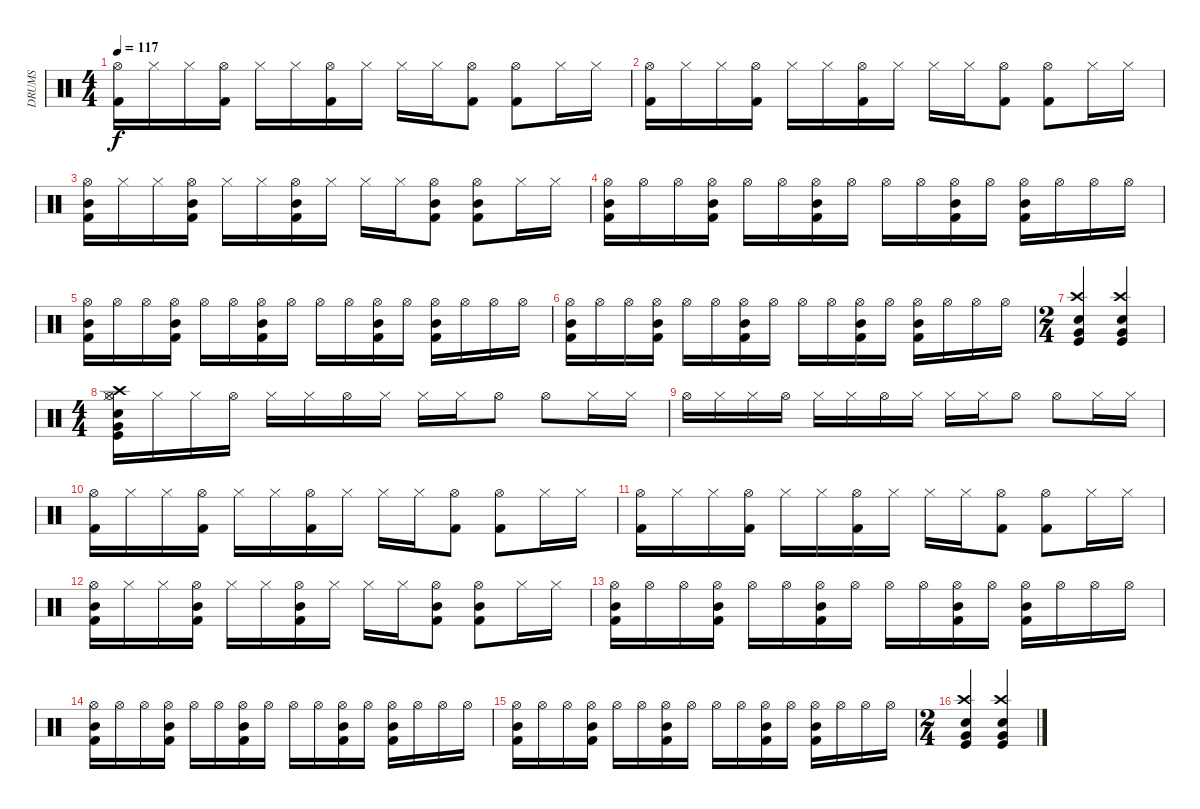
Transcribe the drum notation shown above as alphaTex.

\track ("DRUMS" "DRUMS") {instrument percussion}
\staff {score}
\articulation defaults
\ts (4 4)
\tempo 117
\clef neutral
\ks c
("Kick (hit) 2" "Hi-Hat (open)").16{dy f} "Hi-Hat (closed)".16 "Hi-Hat (closed)".16 ("Kick (hit) 2" "Hi-Hat (open)").16 "Hi-Hat (closed)".16 "Hi-Hat (closed)".16 ("Kick (hit) 2" "Hi-Hat (open)").16 "Hi-Hat (closed)".16 "Hi-Hat (closed)".16 "Hi-Hat (closed)".16 ("Kick (hit) 2" "Hi-Hat (open)").8 ("Kick (hit) 2" "Hi-Hat (open)").8 "Hi-Hat (closed)".16 "Hi-Hat (closed)".16 |
("Kick (hit) 2" "Hi-Hat (open)").16 "Hi-Hat (closed)".16 "Hi-Hat (closed)".16 ("Kick (hit) 2" "Hi-Hat (open)").16 "Hi-Hat (closed)".16 "Hi-Hat (closed)".16 ("Kick (hit) 2" "Hi-Hat (open)").16 "Hi-Hat (closed)".16 "Hi-Hat (closed)".16 "Hi-Hat (closed)".16 ("Kick (hit) 2" "Hi-Hat (open)").8 ("Kick (hit) 2" "Hi-Hat (open)").8 "Hi-Hat (closed)".16 "Hi-Hat (closed)".16 |
("Mid Tom (hit)" "Kick (hit) 2" "Hi-Hat (open)").16 "Hi-Hat (closed)".16 "Hi-Hat (closed)".16 ("Mid Tom (hit)" "Kick (hit) 2" "Hi-Hat (open)").16 "Hi-Hat (closed)".16 "Hi-Hat (closed)".16 ("Mid Tom (hit)" "Kick (hit) 2" "Hi-Hat (open)").16 "Hi-Hat (closed)".16 "Hi-Hat (closed)".16 "Hi-Hat (closed)".16 ("Mid Tom (hit)" "Kick (hit) 2" "Hi-Hat (open)").8 ("Mid Tom (hit)" "Kick (hit) 2" "Hi-Hat (open)").8 "Hi-Hat (closed)".16 "Hi-Hat (closed)".16 |
("Mid Tom (hit)" "Kick (hit) 2" "Hi-Hat (open)").16 "Hi-Hat (open)".16 "Hi-Hat (open)".16 ("Mid Tom (hit)" "Kick (hit) 2" "Hi-Hat (open)").16 "Hi-Hat (open)".16 "Hi-Hat (open)".16 ("Mid Tom (hit)" "Kick (hit) 2" "Hi-Hat (open)").16 "Hi-Hat (open)".16 "Hi-Hat (open)".16 "Hi-Hat (open)".16 ("Mid Tom (hit)" "Kick (hit) 2" "Hi-Hat (open)").16 "Hi-Hat (open)".16 ("Mid Tom (hit)" "Kick (hit) 2" "Hi-Hat (open)").16 "Hi-Hat (open)".16 "Hi-Hat (open)".16 "Hi-Hat (open)".16 |
("Mid Tom (hit)" "Kick (hit) 2" "Hi-Hat (open)").16 "Hi-Hat (open)".16 "Hi-Hat (open)".16 ("Mid Tom (hit)" "Kick (hit) 2" "Hi-Hat (open)").16 "Hi-Hat (open)".16 "Hi-Hat (open)".16 ("Mid Tom (hit)" "Kick (hit) 2" "Hi-Hat (open)").16 "Hi-Hat (open)".16 "Hi-Hat (open)".16 "Hi-Hat (open)".16 ("Mid Tom (hit)" "Kick (hit) 2" "Hi-Hat (open)").16 "Hi-Hat (open)".16 ("Mid Tom (hit)" "Kick (hit) 2" "Hi-Hat (open)").16 "Hi-Hat (open)".16 "Hi-Hat (open)".16 "Hi-Hat (open)".16 |
("Mid Tom (hit)" "Kick (hit) 2" "Hi-Hat (open)").16 "Hi-Hat (open)".16 "Hi-Hat (open)".16 ("Mid Tom (hit)" "Kick (hit) 2" "Hi-Hat (open)").16 "Hi-Hat (open)".16 "Hi-Hat (open)".16 ("Mid Tom (hit)" "Kick (hit) 2" "Hi-Hat (open)").16 "Hi-Hat (open)".16 "Hi-Hat (open)".16 "Hi-Hat (open)".16 ("Mid Tom (hit)" "Kick (hit) 2" "Hi-Hat (open)").16 "Hi-Hat (open)".16 ("Mid Tom (hit)" "Kick (hit) 2" "Hi-Hat (open)").16 "Hi-Hat (open)".16 "Hi-Hat (open)".16 "Hi-Hat (open)".16 |
\ts (2 4)
("Electric Snare (hit)" "Crash high (hit)" "Very Low Tom (hit)" "Kick (hit)").4 ("Electric Snare (hit)" "Crash high (hit)" "Very Low Tom (hit)" "Kick (hit)").4 |
\ts (4 4)
("Crash high (hit)" "Electric Snare (hit)" "Very Low Tom (hit)" "Hi-Hat (open)" "Kick (hit)" "Hi-Hat (closed)").16 "Hi-Hat (closed)".16 "Hi-Hat (closed)".16 "Hi-Hat (open)".16 "Hi-Hat (closed)".16 "Hi-Hat (closed)".16 "Hi-Hat (open)".16 "Hi-Hat (closed)".16 "Hi-Hat (closed)".16 "Hi-Hat (closed)".16 "Hi-Hat (open)".8 "Hi-Hat (open)".8 "Hi-Hat (closed)".16 "Hi-Hat (closed)".16 |
"Hi-Hat (open)".16 "Hi-Hat (closed)".16 "Hi-Hat (closed)".16 "Hi-Hat (open)".16 "Hi-Hat (closed)".16 "Hi-Hat (closed)".16 "Hi-Hat (open)".16 "Hi-Hat (closed)".16 "Hi-Hat (closed)".16 "Hi-Hat (closed)".16 "Hi-Hat (open)".8 "Hi-Hat (open)".8 "Hi-Hat (closed)".16 "Hi-Hat (closed)".16 |
("Kick (hit) 2" "Hi-Hat (open)").16 "Hi-Hat (closed)".16 "Hi-Hat (closed)".16 ("Kick (hit) 2" "Hi-Hat (open)").16 "Hi-Hat (closed)".16 "Hi-Hat (closed)".16 ("Kick (hit) 2" "Hi-Hat (open)").16 "Hi-Hat (closed)".16 "Hi-Hat (closed)".16 "Hi-Hat (closed)".16 ("Kick (hit) 2" "Hi-Hat (open)").8 ("Kick (hit) 2" "Hi-Hat (open)").8 "Hi-Hat (closed)".16 "Hi-Hat (closed)".16 |
("Kick (hit) 2" "Hi-Hat (open)").16 "Hi-Hat (closed)".16 "Hi-Hat (closed)".16 ("Kick (hit) 2" "Hi-Hat (open)").16 "Hi-Hat (closed)".16 "Hi-Hat (closed)".16 ("Kick (hit) 2" "Hi-Hat (open)").16 "Hi-Hat (closed)".16 "Hi-Hat (closed)".16 "Hi-Hat (closed)".16 ("Kick (hit) 2" "Hi-Hat (open)").8 ("Kick (hit) 2" "Hi-Hat (open)").8 "Hi-Hat (closed)".16 "Hi-Hat (closed)".16 |
("Mid Tom (hit)" "Kick (hit) 2" "Hi-Hat (open)").16 "Hi-Hat (closed)".16 "Hi-Hat (closed)".16 ("Mid Tom (hit)" "Kick (hit) 2" "Hi-Hat (open)").16 "Hi-Hat (closed)".16 "Hi-Hat (closed)".16 ("Mid Tom (hit)" "Kick (hit) 2" "Hi-Hat (open)").16 "Hi-Hat (closed)".16 "Hi-Hat (closed)".16 "Hi-Hat (closed)".16 ("Mid Tom (hit)" "Kick (hit) 2" "Hi-Hat (open)").8 ("Mid Tom (hit)" "Kick (hit) 2" "Hi-Hat (open)").8 "Hi-Hat (closed)".16 "Hi-Hat (closed)".16 |
("Mid Tom (hit)" "Kick (hit) 2" "Hi-Hat (open)").16 "Hi-Hat (open)".16 "Hi-Hat (open)".16 ("Mid Tom (hit)" "Kick (hit) 2" "Hi-Hat (open)").16 "Hi-Hat (open)".16 "Hi-Hat (open)".16 ("Mid Tom (hit)" "Kick (hit) 2" "Hi-Hat (open)").16 "Hi-Hat (open)".16 "Hi-Hat (open)".16 "Hi-Hat (open)".16 ("Mid Tom (hit)" "Kick (hit) 2" "Hi-Hat (open)").16 "Hi-Hat (open)".16 ("Mid Tom (hit)" "Kick (hit) 2" "Hi-Hat (open)").16 "Hi-Hat (open)".16 "Hi-Hat (open)".16 "Hi-Hat (open)".16 |
("Mid Tom (hit)" "Kick (hit) 2" "Hi-Hat (open)").16 "Hi-Hat (open)".16 "Hi-Hat (open)".16 ("Mid Tom (hit)" "Kick (hit) 2" "Hi-Hat (open)").16 "Hi-Hat (open)".16 "Hi-Hat (open)".16 ("Mid Tom (hit)" "Kick (hit) 2" "Hi-Hat (open)").16 "Hi-Hat (open)".16 "Hi-Hat (open)".16 "Hi-Hat (open)".16 ("Mid Tom (hit)" "Kick (hit) 2" "Hi-Hat (open)").16 "Hi-Hat (open)".16 ("Mid Tom (hit)" "Kick (hit) 2" "Hi-Hat (open)").16 "Hi-Hat (open)".16 "Hi-Hat (open)".16 "Hi-Hat (open)".16 |
("Mid Tom (hit)" "Kick (hit) 2" "Hi-Hat (open)").16 "Hi-Hat (open)".16 "Hi-Hat (open)".16 ("Mid Tom (hit)" "Kick (hit) 2" "Hi-Hat (open)").16 "Hi-Hat (open)".16 "Hi-Hat (open)".16 ("Mid Tom (hit)" "Kick (hit) 2" "Hi-Hat (open)").16 "Hi-Hat (open)".16 "Hi-Hat (open)".16 "Hi-Hat (open)".16 ("Mid Tom (hit)" "Kick (hit) 2" "Hi-Hat (open)").16 "Hi-Hat (open)".16 ("Mid Tom (hit)" "Kick (hit) 2" "Hi-Hat (open)").16 "Hi-Hat (open)".16 "Hi-Hat (open)".16 "Hi-Hat (open)".16 |
\ts (2 4)
("Electric Snare (hit)" "Crash high (hit)" "Very Low Tom (hit)" "Kick (hit)").4 ("Electric Snare (hit)" "Crash high (hit)" "Very Low Tom (hit)" "Kick (hit)").4
